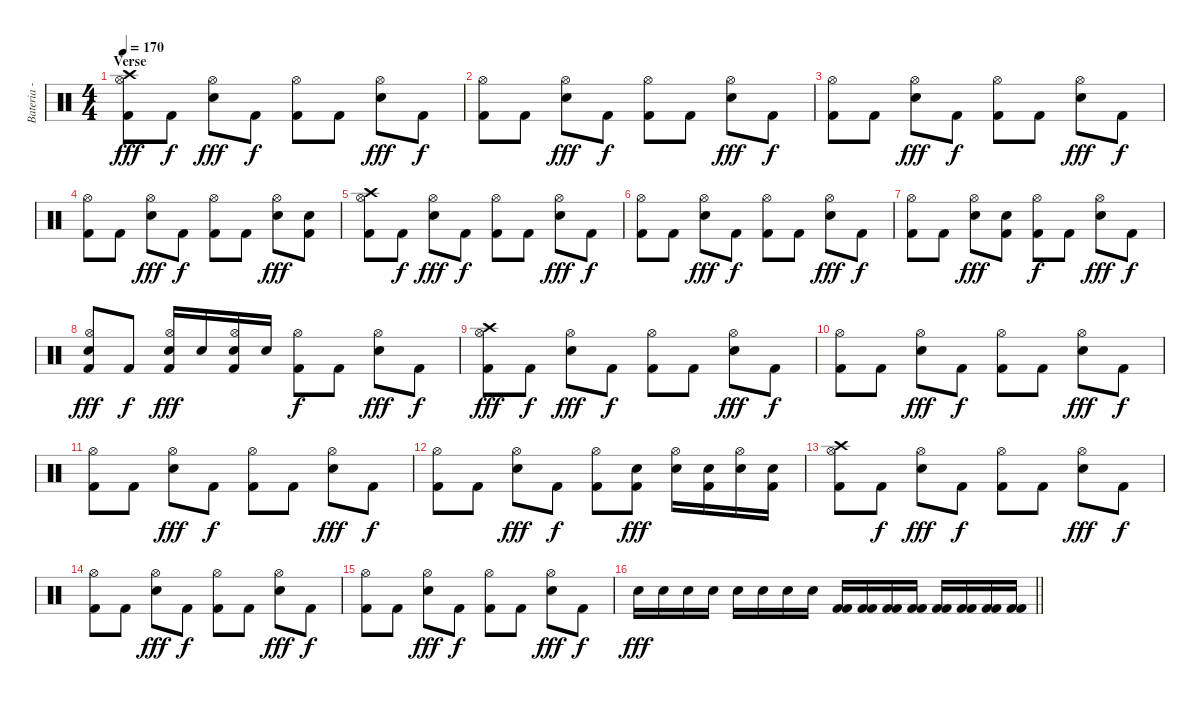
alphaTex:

\track ("Bateria - Larzon" "Bateria - ") {instrument percussion}
\staff {score}
\articulation defaults
\ts (4 4)
\section ("" "Verse")
\tempo 170
\clef neutral
\ks c
("Crash high (hit)" "Kick (hit) 2" "Hi-Hat (open)").8{dy fff} "Kick (hit) 2".8{dy f} ("Hi-Hat (open)" "Snare (hit) 2").8{dy fff} "Kick (hit) 2".8{dy f} ("Kick (hit) 2" "Hi-Hat (open)").8 "Kick (hit) 2".8 ("Hi-Hat (open)" "Snare (hit) 2").8{dy fff} "Kick (hit) 2".8{dy f} |
("Kick (hit) 2" "Hi-Hat (open)").8 "Kick (hit) 2".8 ("Hi-Hat (open)" "Snare (hit) 2").8{dy fff} "Kick (hit) 2".8{dy f} ("Kick (hit) 2" "Hi-Hat (open)").8 "Kick (hit) 2".8 ("Hi-Hat (open)" "Snare (hit) 2").8{dy fff} "Kick (hit) 2".8{dy f} |
("Kick (hit) 2" "Hi-Hat (open)").8 "Kick (hit) 2".8 ("Hi-Hat (open)" "Snare (hit) 2").8{dy fff} "Kick (hit) 2".8{dy f} ("Kick (hit) 2" "Hi-Hat (open)").8 "Kick (hit) 2".8 ("Hi-Hat (open)" "Snare (hit) 2").8{dy fff} "Kick (hit) 2".8{dy f} |
("Kick (hit) 2" "Hi-Hat (open)").8 "Kick (hit) 2".8 ("Hi-Hat (open)" "Snare (hit) 2").8{dy fff} "Kick (hit) 2".8{dy f} ("Kick (hit) 2" "Hi-Hat (open)").8 "Kick (hit) 2".8 ("Hi-Hat (open)" "Snare (hit) 2").8{dy fff} ("Kick (hit) 2" "Snare (hit) 2").8 |
("Crash high (hit)" "Kick (hit) 2" "Hi-Hat (open)").8 "Kick (hit) 2".8{dy f} ("Hi-Hat (open)" "Snare (hit) 2").8{dy fff} "Kick (hit) 2".8{dy f} ("Kick (hit) 2" "Hi-Hat (open)").8 "Kick (hit) 2".8 ("Hi-Hat (open)" "Snare (hit) 2").8{dy fff} "Kick (hit) 2".8{dy f} |
("Kick (hit) 2" "Hi-Hat (open)").8 "Kick (hit) 2".8 ("Hi-Hat (open)" "Snare (hit) 2").8{dy fff} "Kick (hit) 2".8{dy f} ("Kick (hit) 2" "Hi-Hat (open)").8 "Kick (hit) 2".8 ("Hi-Hat (open)" "Snare (hit) 2").8{dy fff} "Kick (hit) 2".8{dy f} |
("Kick (hit) 2" "Hi-Hat (open)").8 "Kick (hit) 2".8 ("Hi-Hat (open)" "Snare (hit) 2").8{dy fff} ("Kick (hit) 2" "Snare (hit) 2").8 ("Kick (hit) 2" "Hi-Hat (open)").8{dy f} "Kick (hit) 2".8 ("Hi-Hat (open)" "Snare (hit) 2").8{dy fff} "Kick (hit) 2".8{dy f} |
("Kick (hit) 2" "Hi-Hat (open)" "Snare (hit) 2").8{dy fff} "Kick (hit) 2".8{dy f} ("Kick (hit) 2" "Hi-Hat (open)" "Snare (hit) 2").16{dy fff} "Snare (hit) 2".16 ("Kick (hit) 2" "Hi-Hat (open)" "Snare (hit) 2").16 "Snare (hit) 2".16 ("Kick (hit) 2" "Hi-Hat (open)").8{dy f} "Kick (hit) 2".8 ("Hi-Hat (open)" "Snare (hit) 2").8{dy fff} "Kick (hit) 2".8{dy f} |
("Crash high (hit)" "Kick (hit) 2" "Hi-Hat (open)").8{dy fff} "Kick (hit) 2".8{dy f} ("Hi-Hat (open)" "Snare (hit) 2").8{dy fff} "Kick (hit) 2".8{dy f} ("Kick (hit) 2" "Hi-Hat (open)").8 "Kick (hit) 2".8 ("Hi-Hat (open)" "Snare (hit) 2").8{dy fff} "Kick (hit) 2".8{dy f} |
("Kick (hit) 2" "Hi-Hat (open)").8 "Kick (hit) 2".8 ("Hi-Hat (open)" "Snare (hit) 2").8{dy fff} "Kick (hit) 2".8{dy f} ("Kick (hit) 2" "Hi-Hat (open)").8 "Kick (hit) 2".8 ("Hi-Hat (open)" "Snare (hit) 2").8{dy fff} "Kick (hit) 2".8{dy f} |
("Kick (hit) 2" "Hi-Hat (open)").8 "Kick (hit) 2".8 ("Hi-Hat (open)" "Snare (hit) 2").8{dy fff} "Kick (hit) 2".8{dy f} ("Kick (hit) 2" "Hi-Hat (open)").8 "Kick (hit) 2".8 ("Hi-Hat (open)" "Snare (hit) 2").8{dy fff} "Kick (hit) 2".8{dy f} |
("Kick (hit) 2" "Hi-Hat (open)").8 "Kick (hit) 2".8 ("Hi-Hat (open)" "Snare (hit) 2").8{dy fff} "Kick (hit) 2".8{dy f} ("Kick (hit) 2" "Hi-Hat (open)").8 ("Kick (hit) 2" "Snare (hit) 2").8{dy fff} ("Hi-Hat (open)" "Snare (hit) 2").16 ("Kick (hit) 2" "Snare (hit) 2").16 ("Hi-Hat (open)" "Snare (hit) 2").16 ("Kick (hit) 2" "Snare (hit) 2").16 |
("Crash high (hit)" "Kick (hit) 2" "Hi-Hat (open)").8 "Kick (hit) 2".8{dy f} ("Hi-Hat (open)" "Snare (hit) 2").8{dy fff} "Kick (hit) 2".8{dy f} ("Kick (hit) 2" "Hi-Hat (open)").8 "Kick (hit) 2".8 ("Hi-Hat (open)" "Snare (hit) 2").8{dy fff} "Kick (hit) 2".8{dy f} |
("Kick (hit) 2" "Hi-Hat (open)").8 "Kick (hit) 2".8 ("Hi-Hat (open)" "Snare (hit) 2").8{dy fff} "Kick (hit) 2".8{dy f} ("Kick (hit) 2" "Hi-Hat (open)").8 "Kick (hit) 2".8 ("Hi-Hat (open)" "Snare (hit) 2").8{dy fff} "Kick (hit) 2".8{dy f} |
("Kick (hit) 2" "Hi-Hat (open)").8 "Kick (hit) 2".8 ("Hi-Hat (open)" "Snare (hit) 2").8{dy fff} "Kick (hit) 2".8{dy f} ("Kick (hit) 2" "Hi-Hat (open)").8 "Kick (hit) 2".8 ("Hi-Hat (open)" "Snare (hit) 2").8{dy fff} "Kick (hit) 2".8{dy f} |
\barLineRight lightlight "Snare (hit) 2".16{dy fff} "Snare (hit) 2".16 "Snare (hit) 2".16 "Snare (hit) 2".16 "Snare (hit) 2".16 "Snare (hit) 2".16 "Snare (hit) 2".16 "Snare (hit) 2".16
("Kick (hit) 2" "Kick (hit) 2").16 ("Kick (hit) 2" "Kick (hit) 2").16 ("Kick (hit) 2" "Kick (hit) 2").16 ("Kick (hit) 2" "Kick (hit) 2").16 ("Kick (hit) 2" "Kick (hit) 2").16 ("Kick (hit) 2" "Kick (hit) 2").16 ("Kick (hit) 2" "Kick (hit) 2").16 ("Kick (hit) 2" "Kick (hit) 2").16
